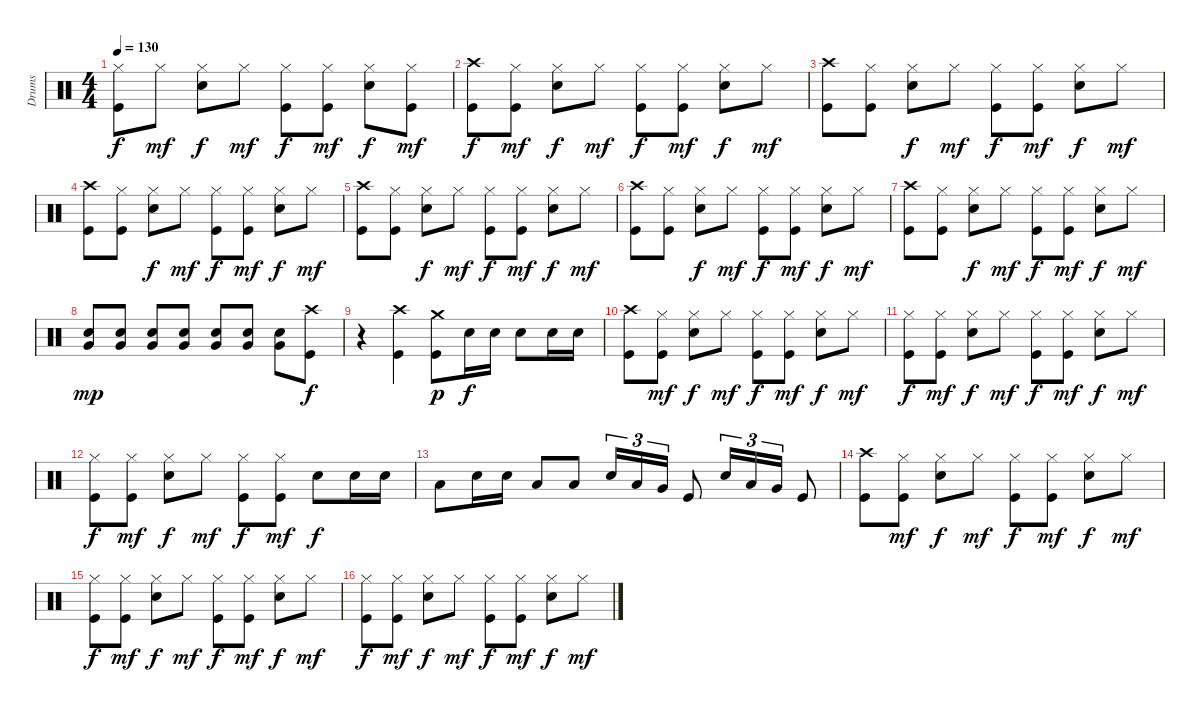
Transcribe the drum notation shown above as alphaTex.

\track ("Drums" "Drums") {instrument percussion}
\staff {score}
\articulation defaults
\ts (4 4)
\tempo 130
\clef neutral
\ks c
("Hi-Hat (closed)" "Kick (hit)").8{dy f} "Hi-Hat (closed)".8{dy mf} ("Hi-Hat (closed)" "Snare (hit) 2").8{dy f} "Hi-Hat (closed)".8{dy mf} ("Hi-Hat (closed)" "Kick (hit)").8{dy f} ("Hi-Hat (closed)" "Kick (hit)").8{dy mf} ("Hi-Hat (closed)" "Snare (hit) 2").8{dy f} ("Hi-Hat (closed)" "Kick (hit)").8{dy mf} |
("Kick (hit)" "Crash high (hit)").8{dy f} ("Hi-Hat (closed)" "Kick (hit)").8{dy mf} ("Hi-Hat (closed)" "Snare (hit) 2").8{dy f} "Hi-Hat (closed)".8{dy mf} ("Hi-Hat (closed)" "Kick (hit)").8{dy f} ("Hi-Hat (closed)" "Kick (hit)").8{dy mf} ("Hi-Hat (closed)" "Snare (hit) 2").8{dy f} "Hi-Hat (closed)".8{dy mf} |
("Kick (hit)" "Crash high (hit)").8 ("Hi-Hat (closed)" "Kick (hit)").8 ("Hi-Hat (closed)" "Snare (hit) 2").8{dy f} "Hi-Hat (closed)".8{dy mf} ("Hi-Hat (closed)" "Kick (hit)").8{dy f} ("Hi-Hat (closed)" "Kick (hit)").8{dy mf} ("Hi-Hat (closed)" "Snare (hit) 2").8{dy f} "Hi-Hat (closed)".8{dy mf} |
("Kick (hit)" "Crash high (hit)").8 ("Hi-Hat (closed)" "Kick (hit)").8 ("Hi-Hat (closed)" "Snare (hit) 2").8{dy f} "Hi-Hat (closed)".8{dy mf} ("Hi-Hat (closed)" "Kick (hit)").8{dy f} ("Hi-Hat (closed)" "Kick (hit)").8{dy mf} ("Hi-Hat (closed)" "Snare (hit) 2").8{dy f} "Hi-Hat (closed)".8{dy mf} |
("Kick (hit)" "Crash high (hit)").8 ("Hi-Hat (closed)" "Kick (hit)").8 ("Hi-Hat (closed)" "Snare (hit) 2").8{dy f} "Hi-Hat (closed)".8{dy mf} ("Hi-Hat (closed)" "Kick (hit)").8{dy f} ("Hi-Hat (closed)" "Kick (hit)").8{dy mf} ("Hi-Hat (closed)" "Snare (hit) 2").8{dy f} "Hi-Hat (closed)".8{dy mf} |
("Kick (hit)" "Crash high (hit)").8 ("Hi-Hat (closed)" "Kick (hit)").8 ("Hi-Hat (closed)" "Snare (hit) 2").8{dy f} "Hi-Hat (closed)".8{dy mf} ("Hi-Hat (closed)" "Kick (hit)").8{dy f} ("Hi-Hat (closed)" "Kick (hit)").8{dy mf} ("Hi-Hat (closed)" "Snare (hit) 2").8{dy f} "Hi-Hat (closed)".8{dy mf} |
("Kick (hit)" "Crash high (hit)").8 ("Hi-Hat (closed)" "Kick (hit)").8 ("Hi-Hat (closed)" "Snare (hit) 2").8{dy f} "Hi-Hat (closed)".8{dy mf} ("Hi-Hat (closed)" "Kick (hit)").8{dy f} ("Hi-Hat (closed)" "Kick (hit)").8{dy mf} ("Hi-Hat (closed)" "Snare (hit) 2").8{dy f} "Hi-Hat (closed)".8{dy mf} |
("Snare (hit) 2" "Very Low Tom (hit)").8{dy mp} ("Snare (hit) 2" "Very Low Tom (hit)").8 ("Snare (hit) 2" "Very Low Tom (hit)").8 ("Snare (hit) 2" "Very Low Tom (hit)").8 ("Snare (hit) 2" "Very Low Tom (hit)").8 ("Snare (hit) 2" "Very Low Tom (hit)").8 ("Snare (hit) 2" "Very Low Tom (hit)").8 ("Kick (hit)" "Crash high (hit)").8{dy f} |
r.4 ("Kick (hit)" "Crash high (hit)").4 ("Crash medium (hit)" "Kick (hit)").8{dy p} "Snare (hit) 2".16{dy f} "Snare (hit) 2".16 "Snare (hit) 2".8 "Snare (hit) 2".16 "Snare (hit) 2".16 |
("Kick (hit)" "Crash high (hit)").8 ("Hi-Hat (closed)" "Kick (hit)").8{dy mf} ("Hi-Hat (closed)" "Snare (hit) 2").8{dy f} "Hi-Hat (closed)".8{dy mf} ("Hi-Hat (closed)" "Kick (hit)").8{dy f} ("Hi-Hat (closed)" "Kick (hit)").8{dy mf} ("Hi-Hat (closed)" "Snare (hit) 2").8{dy f} "Hi-Hat (closed)".8{dy mf} |
("Hi-Hat (closed)" "Kick (hit)").8{dy f} ("Hi-Hat (closed)" "Kick (hit)").8{dy mf} ("Hi-Hat (closed)" "Snare (hit) 2").8{dy f} "Hi-Hat (closed)".8{dy mf} ("Hi-Hat (closed)" "Kick (hit)").8{dy f} ("Hi-Hat (closed)" "Kick (hit)").8{dy mf} ("Hi-Hat (closed)" "Snare (hit) 2").8{dy f} "Hi-Hat (closed)".8{dy mf} |
("Hi-Hat (closed)" "Kick (hit)").8{dy f} ("Hi-Hat (closed)" "Kick (hit)").8{dy mf} ("Hi-Hat (closed)" "Snare (hit) 2").8{dy f} "Hi-Hat (closed)".8{dy mf} ("Hi-Hat (closed)" "Kick (hit)").8{dy f} ("Hi-Hat (closed)" "Kick (hit)").8{dy mf} "Snare (hit) 2".8{dy f} "Snare (hit) 2".16 "Snare (hit) 2".16 |
"Low Tom (hit)".8 "Snare (hit) 2".16 "Snare (hit) 2".16 "Low Tom (hit)".8 "Low Tom (hit)".8 "Snare (hit) 2".16{tu (3 2)} "Low Tom (hit)".16{tu (3 2)} "Very Low Tom (hit)".16{tu (3 2)} "Kick (hit)".8 "Snare (hit) 2".16{tu (3 2)} "Low Tom (hit)".16{tu (3 2)} "Very Low Tom (hit)".16{tu (3 2)} "Kick (hit)".8 |
("Kick (hit)" "Crash high (hit)").8 ("Hi-Hat (closed)" "Kick (hit)").8{dy mf} ("Hi-Hat (closed)" "Snare (hit) 2").8{dy f} "Hi-Hat (closed)".8{dy mf} ("Hi-Hat (closed)" "Kick (hit)").8{dy f} ("Hi-Hat (closed)" "Kick (hit)").8{dy mf} ("Hi-Hat (closed)" "Snare (hit) 2").8{dy f} "Hi-Hat (closed)".8{dy mf} |
("Hi-Hat (closed)" "Kick (hit)").8{dy f} ("Hi-Hat (closed)" "Kick (hit)").8{dy mf} ("Hi-Hat (closed)" "Snare (hit) 2").8{dy f} "Hi-Hat (closed)".8{dy mf} ("Hi-Hat (closed)" "Kick (hit)").8{dy f} ("Hi-Hat (closed)" "Kick (hit)").8{dy mf} ("Hi-Hat (closed)" "Snare (hit) 2").8{dy f} "Hi-Hat (closed)".8{dy mf} |
("Hi-Hat (closed)" "Kick (hit)").8{dy f} ("Hi-Hat (closed)" "Kick (hit)").8{dy mf} ("Hi-Hat (closed)" "Snare (hit) 2").8{dy f} "Hi-Hat (closed)".8{dy mf} ("Hi-Hat (closed)" "Kick (hit)").8{dy f} ("Hi-Hat (closed)" "Kick (hit)").8{dy mf} ("Hi-Hat (closed)" "Snare (hit) 2").8{dy f} "Hi-Hat (closed)".8{dy mf}
